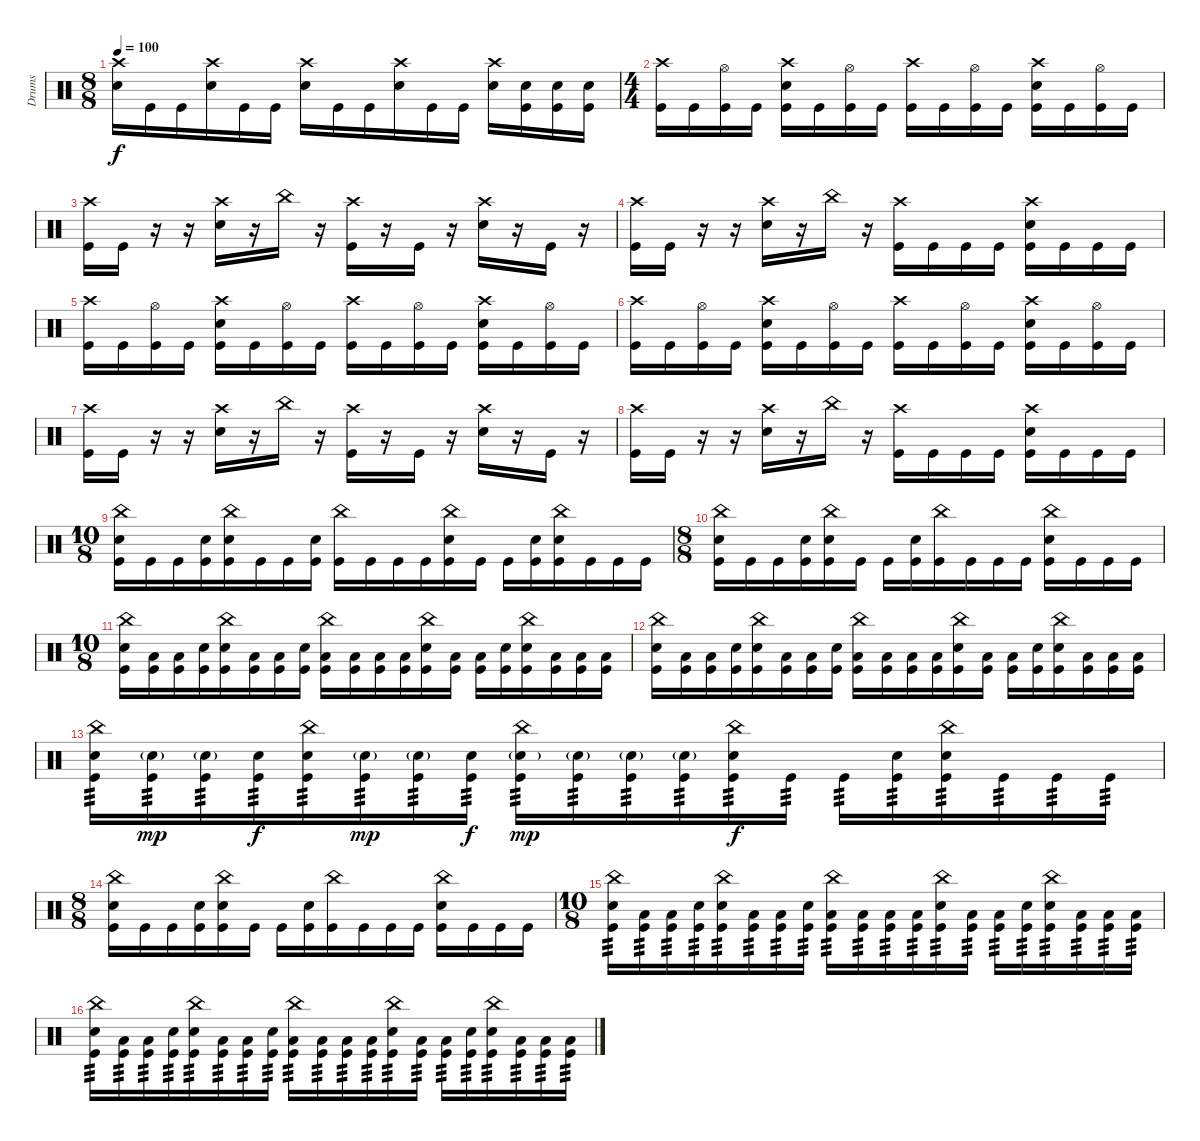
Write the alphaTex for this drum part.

\track ("Drums" "Drums") {instrument percussion}
\staff {score}
\articulation defaults
\ts (8 8)
\tempo 100
\clef neutral
\ks c
("Crash high (hit)" "Electric Snare (hit)").16{dy f} "Kick (hit)".16 "Kick (hit)".16 ("Crash high (hit)" "Electric Snare (hit)").16 "Kick (hit)".16 "Kick (hit)".16 ("Crash high (hit)" "Electric Snare (hit)").16 "Kick (hit)".16 "Kick (hit)".16 ("Crash high (hit)" "Electric Snare (hit)").16 "Kick (hit)".16 "Kick (hit)".16 ("Crash high (hit)" "Electric Snare (hit)").16 ("Electric Snare (hit)" "Kick (hit)").16 ("Electric Snare (hit)" "Kick (hit)").16 ("Electric Snare (hit)" "Kick (hit)").16 |
\ts (4 4)
("Crash high (hit)" "Kick (hit)").16 "Kick (hit)".16 ("Hi-Hat (open)" "Kick (hit)").16 "Kick (hit)".16 ("Crash high (hit)" "Electric Snare (hit)" "Kick (hit)").16 "Kick (hit)".16 ("Hi-Hat (open)" "Kick (hit)").16 "Kick (hit)".16 ("Crash high (hit)" "Kick (hit)").16 "Kick (hit)".16 ("Hi-Hat (open)" "Kick (hit)").16 "Kick (hit)".16 ("Crash high (hit)" "Electric Snare (hit)" "Kick (hit)").16 "Kick (hit)".16 ("Hi-Hat (open)" "Kick (hit)").16 "Kick (hit)".16 |
("Crash high (hit)" "Kick (hit)").16 "Kick (hit)".16 r.16 r.16 ("Crash high (hit)" "Electric Snare (hit)").16 r.16 "China (hit)".16 r.16 ("Crash high (hit)" "Kick (hit)").16 r.16 "Kick (hit)".16 r.16 ("Crash high (hit)" "Electric Snare (hit)").16 r.16 "Kick (hit)".16 r.16 |
("Crash high (hit)" "Kick (hit)").16 "Kick (hit)".16 r.16 r.16 ("Crash high (hit)" "Electric Snare (hit)").16 r.16 "China (hit)".16 r.16 ("Crash high (hit)" "Kick (hit)").16 "Kick (hit)".16 "Kick (hit)".16 "Kick (hit)".16 ("Crash high (hit)" "Electric Snare (hit)" "Kick (hit)").16 "Kick (hit)".16 "Kick (hit)".16 "Kick (hit)".16 |
("Crash high (hit)" "Kick (hit)").16 "Kick (hit)".16 ("Hi-Hat (open)" "Kick (hit)").16 "Kick (hit)".16 ("Crash high (hit)" "Electric Snare (hit)" "Kick (hit)").16 "Kick (hit)".16 ("Hi-Hat (open)" "Kick (hit)").16 "Kick (hit)".16 ("Crash high (hit)" "Kick (hit)").16 "Kick (hit)".16 ("Hi-Hat (open)" "Kick (hit)").16 "Kick (hit)".16 ("Crash high (hit)" "Electric Snare (hit)" "Kick (hit)").16 "Kick (hit)".16 ("Hi-Hat (open)" "Kick (hit)").16 "Kick (hit)".16 |
("Crash high (hit)" "Kick (hit)").16 "Kick (hit)".16 ("Hi-Hat (open)" "Kick (hit)").16 "Kick (hit)".16 ("Crash high (hit)" "Electric Snare (hit)" "Kick (hit)").16 "Kick (hit)".16 ("Hi-Hat (open)" "Kick (hit)").16 "Kick (hit)".16 ("Crash high (hit)" "Kick (hit)").16 "Kick (hit)".16 ("Hi-Hat (open)" "Kick (hit)").16 "Kick (hit)".16 ("Crash high (hit)" "Electric Snare (hit)" "Kick (hit)").16 "Kick (hit)".16 ("Hi-Hat (open)" "Kick (hit)").16 "Kick (hit)".16 |
("Crash high (hit)" "Kick (hit)").16 "Kick (hit)".16 r.16 r.16 ("Crash high (hit)" "Electric Snare (hit)").16 r.16 "China (hit)".16 r.16 ("Crash high (hit)" "Kick (hit)").16 r.16 "Kick (hit)".16 r.16 ("Crash high (hit)" "Electric Snare (hit)").16 r.16 "Kick (hit)".16 r.16 |
("Crash high (hit)" "Kick (hit)").16 "Kick (hit)".16 r.16 r.16 ("Crash high (hit)" "Electric Snare (hit)").16 r.16 "China (hit)".16 r.16 ("Crash high (hit)" "Kick (hit)").16 "Kick (hit)".16 "Kick (hit)".16 "Kick (hit)".16 ("Crash high (hit)" "Electric Snare (hit)" "Kick (hit)").16 "Kick (hit)".16 "Kick (hit)".16 "Kick (hit)".16 |
\ts (10 8)
("China (hit)" "Electric Snare (hit)" "Kick (hit)").16 "Kick (hit)".16 "Kick (hit)".16 ("Electric Snare (hit)" "Kick (hit)").16 ("China (hit)" "Electric Snare (hit)" "Kick (hit)").16 "Kick (hit)".16 "Kick (hit)".16 ("Electric Snare (hit)" "Kick (hit)").16 ("China (hit)" "Kick (hit)").16 "Kick (hit)".16 "Kick (hit)".16 "Kick (hit)".16 ("China (hit)" "Electric Snare (hit)" "Kick (hit)").16 "Kick (hit)".16 "Kick (hit)".16 ("Electric Snare (hit)" "Kick (hit)").16 ("China (hit)" "Electric Snare (hit)" "Kick (hit)").16 "Kick (hit)".16 "Kick (hit)".16 "Kick (hit)".16 |
\ts (8 8)
("China (hit)" "Electric Snare (hit)" "Kick (hit)").16 "Kick (hit)".16 "Kick (hit)".16 ("Electric Snare (hit)" "Kick (hit)").16 ("China (hit)" "Electric Snare (hit)" "Kick (hit)").16 "Kick (hit)".16 "Kick (hit)".16 ("Electric Snare (hit)" "Kick (hit)").16 ("China (hit)" "Kick (hit)").16 "Kick (hit)".16 "Kick (hit)".16 "Kick (hit)".16 ("China (hit)" "Electric Snare (hit)" "Kick (hit)").16 "Kick (hit)".16 "Kick (hit)".16 "Kick (hit)".16 |
\ts (10 8)
("China (hit)" "Electric Snare (hit)" "Kick (hit)").16 ("Low Tom (hit)" "Kick (hit)").16 ("Low Tom (hit)" "Kick (hit)").16 ("Electric Snare (hit)" "Kick (hit)").16 ("China (hit)" "Electric Snare (hit)" "Kick (hit)").16 ("Low Tom (hit)" "Kick (hit)").16 ("Low Tom (hit)" "Kick (hit)").16 ("Electric Snare (hit)" "Kick (hit)").16 ("China (hit)" "Low Tom (hit)" "Kick (hit)").16 ("Low Tom (hit)" "Kick (hit)").16 ("Low Tom (hit)" "Kick (hit)").16 ("Low Tom (hit)" "Kick (hit)").16 ("China (hit)" "Electric Snare (hit)" "Kick (hit)").16 ("Low Tom (hit)" "Kick (hit)").16 ("Low Tom (hit)" "Kick (hit)").16 ("Electric Snare (hit)" "Kick (hit)").16 ("China (hit)" "Electric Snare (hit)" "Kick (hit)").16 ("Low Tom (hit)" "Kick (hit)").16 ("Low Tom (hit)" "Kick (hit)").16 ("Low Tom (hit)" "Kick (hit)").16 |
("China (hit)" "Electric Snare (hit)" "Kick (hit)").16 ("Low Tom (hit)" "Kick (hit)").16 ("Low Tom (hit)" "Kick (hit)").16 ("Electric Snare (hit)" "Kick (hit)").16 ("China (hit)" "Electric Snare (hit)" "Kick (hit)").16 ("Low Tom (hit)" "Kick (hit)").16 ("Low Tom (hit)" "Kick (hit)").16 ("Electric Snare (hit)" "Kick (hit)").16 ("China (hit)" "Low Tom (hit)" "Kick (hit)").16 ("Low Tom (hit)" "Kick (hit)").16 ("Low Tom (hit)" "Kick (hit)").16 ("Low Tom (hit)" "Kick (hit)").16 ("China (hit)" "Electric Snare (hit)" "Kick (hit)").16 ("Low Tom (hit)" "Kick (hit)").16 ("Low Tom (hit)" "Kick (hit)").16 ("Electric Snare (hit)" "Kick (hit)").16 ("China (hit)" "Electric Snare (hit)" "Kick (hit)").16 ("Low Tom (hit)" "Kick (hit)").16 ("Low Tom (hit)" "Kick (hit)").16 ("Low Tom (hit)" "Kick (hit)").16 |
("China (hit)" "Electric Snare (hit)" "Kick (hit)").16{tp 3} ("Electric Snare (hit)"{g} "Kick (hit)").16{tp 3 dy mp} ("Electric Snare (hit)"{g} "Kick (hit)").16{tp 3} ("Electric Snare (hit)" "Kick (hit)").16{tp 3 dy f} ("China (hit)" "Electric Snare (hit)" "Kick (hit)").16{tp 3} ("Electric Snare (hit)"{g} "Kick (hit)").16{tp 3 dy mp} ("Electric Snare (hit)"{g} "Kick (hit)").16{tp 3} ("Electric Snare (hit)" "Kick (hit)").16{tp 3 dy f} ("China (hit)" "Electric Snare (hit)"{g} "Kick (hit)").16{tp 3 dy mp} ("Electric Snare (hit)"{g} "Kick (hit)").16{tp 3} ("Electric Snare (hit)"{g} "Kick (hit)").16{tp 3} ("Electric Snare (hit)"{g} "Kick (hit)").16{tp 3} ("China (hit)" "Electric Snare (hit)" "Kick (hit)").16{tp 3 dy f} "Kick (hit)".16{tp 3} "Kick (hit)".16{tp 3} ("Electric Snare (hit)" "Kick (hit)").16{tp 3} ("China (hit)" "Electric Snare (hit)" "Kick (hit)").16{tp 3} "Kick (hit)".16{tp 3} "Kick (hit)".16{tp 3} "Kick (hit)".16{tp 3} |
\ts (8 8)
("China (hit)" "Electric Snare (hit)" "Kick (hit)").16 "Kick (hit)".16 "Kick (hit)".16 ("Electric Snare (hit)" "Kick (hit)").16 ("China (hit)" "Electric Snare (hit)" "Kick (hit)").16 "Kick (hit)".16 "Kick (hit)".16 ("Electric Snare (hit)" "Kick (hit)").16 ("China (hit)" "Kick (hit)").16 "Kick (hit)".16 "Kick (hit)".16 "Kick (hit)".16 ("China (hit)" "Electric Snare (hit)" "Kick (hit)").16 "Kick (hit)".16 "Kick (hit)".16 "Kick (hit)".16 |
\ts (10 8)
("China (hit)" "Electric Snare (hit)" "Kick (hit)").16{tp 3} ("Low Floor Tom (hit)" "Kick (hit)").16{tp 3} ("Low Floor Tom (hit)" "Kick (hit)").16{tp 3} ("Electric Snare (hit)" "Kick (hit)").16{tp 3} ("China (hit)" "Electric Snare (hit)" "Kick (hit)").16{tp 3} ("Low Floor Tom (hit)" "Kick (hit)").16{tp 3} ("Low Floor Tom (hit)" "Kick (hit)").16{tp 3} ("Electric Snare (hit)" "Kick (hit)").16{tp 3} ("China (hit)" "Low Floor Tom (hit)" "Kick (hit)").16{tp 3} ("Low Floor Tom (hit)" "Kick (hit)").16{tp 3} ("Low Floor Tom (hit)" "Kick (hit)").16{tp 3} ("Low Floor Tom (hit)" "Kick (hit)").16{tp 3} ("China (hit)" "Electric Snare (hit)" "Kick (hit)").16{tp 3} ("Low Floor Tom (hit)" "Kick (hit)").16{tp 3} ("Low Floor Tom (hit)" "Kick (hit)").16{tp 3} ("Electric Snare (hit)" "Kick (hit)").16{tp 3} ("China (hit)" "Electric Snare (hit)" "Kick (hit)").16{tp 3} ("Low Floor Tom (hit)" "Kick (hit)").16{tp 3} ("Low Floor Tom (hit)" "Kick (hit)").16{tp 3} ("Low Floor Tom (hit)" "Kick (hit)").16{tp 3} |
("China (hit)" "Electric Snare (hit)" "Kick (hit)").16{tp 3} ("Low Floor Tom (hit)" "Kick (hit)").16{tp 3} ("Low Floor Tom (hit)" "Kick (hit)").16{tp 3} ("Electric Snare (hit)" "Kick (hit)").16{tp 3} ("China (hit)" "Electric Snare (hit)" "Kick (hit)").16{tp 3} ("Low Floor Tom (hit)" "Kick (hit)").16{tp 3} ("Low Floor Tom (hit)" "Kick (hit)").16{tp 3} ("Electric Snare (hit)" "Kick (hit)").16{tp 3} ("China (hit)" "Low Floor Tom (hit)" "Kick (hit)").16{tp 3} ("Low Floor Tom (hit)" "Kick (hit)").16{tp 3} ("Low Floor Tom (hit)" "Kick (hit)").16{tp 3} ("Low Floor Tom (hit)" "Kick (hit)").16{tp 3} ("China (hit)" "Electric Snare (hit)" "Kick (hit)").16{tp 3} ("Low Floor Tom (hit)" "Kick (hit)").16{tp 3} ("Low Floor Tom (hit)" "Kick (hit)").16{tp 3} ("Electric Snare (hit)" "Kick (hit)").16{tp 3} ("China (hit)" "Electric Snare (hit)" "Kick (hit)").16{tp 3} ("Low Floor Tom (hit)" "Kick (hit)").16{tp 3} ("Low Floor Tom (hit)" "Kick (hit)").16{tp 3} ("Low Floor Tom (hit)" "Kick (hit)").16{tp 3}
